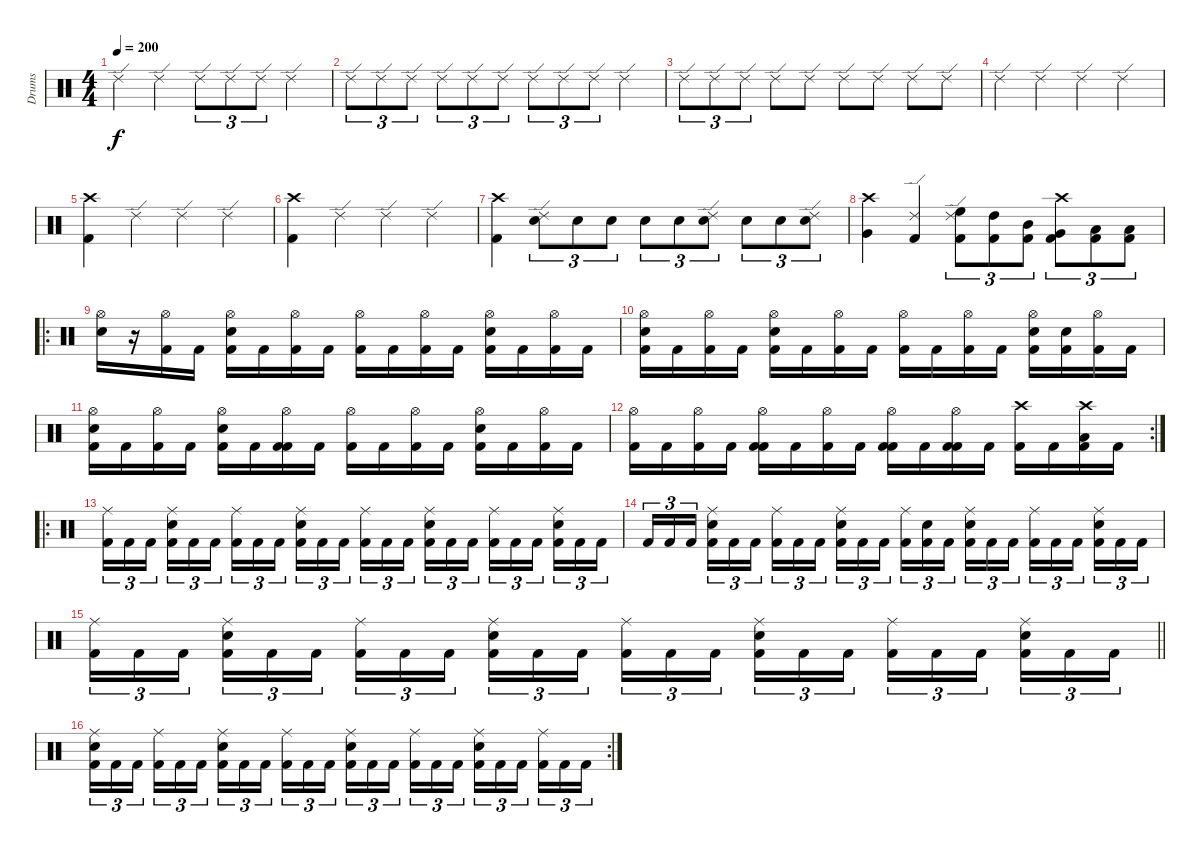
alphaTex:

\track ("Drums" "Drums") {instrument percussion}
\staff {score}
\articulation defaults
\ts (4 4)
\tempo 200
\clef neutral
\ks c "Ride (edge) 2".4{dy f} "Ride (edge) 2".4 "Ride (edge) 2".8{tu (3 2)} "Ride (edge) 2".8{tu (3 2)} "Ride (edge) 2".8{tu (3 2)} "Ride (edge) 2".4
|
"Ride (edge) 2".8{tu (3 2)} "Ride (edge) 2".8{tu (3 2)} "Ride (edge) 2".8{tu (3 2)} "Ride (edge) 2".8{tu (3 2)} "Ride (edge) 2".8{tu (3 2)} "Ride (edge) 2".8{tu (3 2)} "Ride (edge) 2".8{tu (3 2)} "Ride (edge) 2".8{tu (3 2)} "Ride (edge) 2".8{tu (3 2)} "Ride (edge) 2".4 |
"Ride (edge) 2".8{tu (3 2)} "Ride (edge) 2".8{tu (3 2)} "Ride (edge) 2".8{tu (3 2)} "Ride (edge) 2".8 "Ride (edge) 2".8 "Ride (edge) 2".8 "Ride (edge) 2".8 "Ride (edge) 2".8 "Ride (edge) 2".8 |
"Ride (edge) 2".4 "Ride (edge) 2".4 "Ride (edge) 2".4 "Ride (edge) 2".4 |
("Crash high (hit)" "Kick (hit) 2").4 "Ride (edge) 2".4 "Ride (edge) 2".4 "Ride (edge) 2".4 |
("Crash high (hit)" "Kick (hit) 2").4 "Ride (edge) 2".4 "Ride (edge) 2".4 "Ride (edge) 2".4 |
("Crash high (hit)" "Kick (hit) 2").4 ("Ride (edge) 2" "Snare (hit) 2").8{tu (3 2)} "Snare (hit) 2".8{tu (3 2)} "Snare (hit) 2".8{tu (3 2)} "Snare (hit) 2".8{tu (3 2)} "Snare (hit) 2".8{tu (3 2)} ("Ride (edge) 2" "Snare (hit) 2").8{tu (3 2)} "Snare (hit) 2".8{tu (3 2)} "Snare (hit) 2".8{tu (3 2)} ("Ride (edge) 2" "Snare (hit) 2").8{tu (3 2)} |
("Crash high (hit)" "Very Low Tom (hit)").4 ("Ride (edge) 2" "Kick (hit) 2").4 ("Ride (edge) 2" "High Floor Tom (hit)" "Kick (hit) 2").8{tu (3 2)} ("High Tom (hit)" "Kick (hit) 2").8{tu (3 2)} ("Mid Tom (hit)" "Kick (hit) 2").8{tu (3 2)} ("Crash high (hit)" "Very Low Tom (hit)" "Kick (hit) 2").8{tu (3 2)} ("Low Floor Tom (hit)" "Kick (hit) 2").8{tu (3 2)} ("Low Floor Tom (hit)" "Kick (hit) 2").8{tu (3 2)} |
\ro
("Hi-Hat (open)" "Snare (hit) 2").16 r.16 ("Hi-Hat (open)" "Kick (hit) 2").16 "Kick (hit) 2".16 ("Hi-Hat (open)" "Snare (hit) 2" "Kick (hit) 2").16 "Kick (hit) 2".16 ("Hi-Hat (open)" "Kick (hit) 2").16 "Kick (hit) 2".16 ("Hi-Hat (open)" "Kick (hit) 2").16 "Kick (hit) 2".16 ("Hi-Hat (open)" "Kick (hit) 2").16 "Kick (hit) 2".16 ("Hi-Hat (open)" "Snare (hit) 2" "Kick (hit) 2").16 "Kick (hit) 2".16 ("Hi-Hat (open)" "Kick (hit) 2").16 "Kick (hit) 2".16 |
("Hi-Hat (open)" "Snare (hit) 2" "Kick (hit) 2").16 "Kick (hit) 2".16 ("Hi-Hat (open)" "Kick (hit) 2").16 "Kick (hit) 2".16 ("Hi-Hat (open)" "Snare (hit) 2" "Kick (hit) 2").16 "Kick (hit) 2".16 ("Hi-Hat (open)" "Kick (hit) 2").16 "Kick (hit) 2".16 ("Hi-Hat (open)" "Kick (hit) 2").16 "Kick (hit) 2".16 ("Hi-Hat (open)" "Kick (hit) 2").16 "Kick (hit) 2".16 ("Hi-Hat (open)" "Snare (hit) 2" "Kick (hit) 2").16 ("Snare (hit) 2" "Kick (hit) 2").16 ("Hi-Hat (open)" "Kick (hit) 2").16 "Kick (hit) 2".16 |
("Hi-Hat (open)" "Snare (hit) 2" "Kick (hit) 2").16 "Kick (hit) 2".16 ("Hi-Hat (open)" "Kick (hit) 2").16 "Kick (hit) 2".16 ("Hi-Hat (open)" "Snare (hit) 2" "Kick (hit) 2").16 "Kick (hit) 2".16 ("Hi-Hat (open)" "Kick (hit) 2" "Kick (hit) 2").16 "Kick (hit) 2".16 ("Hi-Hat (open)" "Kick (hit) 2").16 "Kick (hit) 2".16 ("Hi-Hat (open)" "Kick (hit) 2").16 "Kick (hit) 2".16 ("Hi-Hat (open)" "Snare (hit) 2" "Kick (hit) 2").16 "Kick (hit) 2".16 ("Hi-Hat (open)" "Kick (hit) 2").16 "Kick (hit) 2".16 |
\rc 2
("Hi-Hat (open)" "Kick (hit) 2").16 "Kick (hit) 2".16 ("Hi-Hat (open)" "Kick (hit) 2").16 "Kick (hit) 2".16 ("Hi-Hat (open)" "Kick (hit) 2" "Kick (hit) 2").16 "Kick (hit) 2".16 ("Hi-Hat (open)" "Kick (hit) 2").16 "Kick (hit) 2".16 ("Hi-Hat (open)" "Kick (hit) 2" "Kick (hit) 2").16 "Kick (hit) 2".16 ("Hi-Hat (open)" "Kick (hit) 2" "Kick (hit) 2").16 "Kick (hit) 2".16 ("Crash high (hit)" "Kick (hit) 2").16 "Kick (hit) 2".16 ("Crash high (hit)" "Low Floor Tom (hit)" "Kick (hit) 2").16 "Kick (hit) 2".16 |
\ro
("Ride (middle)" "Kick (hit) 2").16{tu (3 2)} "Kick (hit) 2".16{tu (3 2)} "Kick (hit) 2".16{tu (3 2)} ("Ride (middle)" "Snare (hit) 2" "Kick (hit) 2").16{tu (3 2)} "Kick (hit) 2".16{tu (3 2)} "Kick (hit) 2".16{tu (3 2)} ("Ride (middle)" "Kick (hit) 2").16{tu (3 2)} "Kick (hit) 2".16{tu (3 2)} "Kick (hit) 2".16{tu (3 2)} ("Ride (middle)" "Snare (hit) 2" "Kick (hit) 2").16{tu (3 2)} "Kick (hit) 2".16{tu (3 2)} "Kick (hit) 2".16{tu (3 2)} ("Ride (middle)" "Kick (hit) 2").16{tu (3 2)} "Kick (hit) 2".16{tu (3 2)} "Kick (hit) 2".16{tu (3 2)} ("Ride (middle)" "Snare (hit) 2" "Kick (hit) 2").16{tu (3 2)} "Kick (hit) 2".16{tu (3 2)} "Kick (hit) 2".16{tu (3 2)} ("Ride (middle)" "Kick (hit) 2").16{tu (3 2)} "Kick (hit) 2".16{tu (3 2)} "Kick (hit) 2".16{tu (3 2)} ("Ride (middle)" "Snare (hit) 2" "Kick (hit) 2").16{tu (3 2)} "Kick (hit) 2".16{tu (3 2)} "Kick (hit) 2".16{tu (3 2)} |
"Kick (hit) 2".16{tu (3 2)} "Kick (hit) 2".16{tu (3 2)} "Kick (hit) 2".16{tu (3 2)} ("Ride (middle)" "Snare (hit) 2" "Kick (hit) 2").16{tu (3 2)} "Kick (hit) 2".16{tu (3 2)} "Kick (hit) 2".16{tu (3 2)} ("Ride (middle)" "Kick (hit) 2").16{tu (3 2)} "Kick (hit) 2".16{tu (3 2)} "Kick (hit) 2".16{tu (3 2)} ("Ride (middle)" "Snare (hit) 2" "Kick (hit) 2").16{tu (3 2)} "Kick (hit) 2".16{tu (3 2)} "Kick (hit) 2".16{tu (3 2)} ("Ride (middle)" "Kick (hit) 2").16{tu (3 2)} ("Snare (hit)" "Kick (hit) 2").16{tu (3 2)} "Kick (hit) 2".16{tu (3 2)} ("Ride (middle)" "Snare (hit) 2" "Kick (hit) 2").16{tu (3 2)} "Kick (hit) 2".16{tu (3 2)} "Kick (hit) 2".16{tu (3 2)} ("Ride (middle)" "Kick (hit) 2").16{tu (3 2)} "Kick (hit) 2".16{tu (3 2)} "Kick (hit) 2".16{tu (3 2)} ("Ride (middle)" "Snare (hit) 2" "Kick (hit) 2").16{tu (3 2)} "Kick (hit) 2".16{tu (3 2)} "Kick (hit) 2".16{tu (3 2)} |
\barLineRight lightlight
("Ride (middle)" "Kick (hit) 2").16{tu (3 2)} "Kick (hit) 2".16{tu (3 2)} "Kick (hit) 2".16{tu (3 2)} ("Ride (middle)" "Snare (hit) 2" "Kick (hit) 2").16{tu (3 2)} "Kick (hit) 2".16{tu (3 2)} "Kick (hit) 2".16{tu (3 2)} ("Ride (middle)" "Kick (hit) 2").16{tu (3 2)} "Kick (hit) 2".16{tu (3 2)} "Kick (hit) 2".16{tu (3 2)} ("Ride (middle)" "Snare (hit) 2" "Kick (hit) 2").16{tu (3 2)} "Kick (hit) 2".16{tu (3 2)} "Kick (hit) 2".16{tu (3 2)} ("Ride (middle)" "Kick (hit) 2").16{tu (3 2)} "Kick (hit) 2".16{tu (3 2)} "Kick (hit) 2".16{tu (3 2)} ("Ride (middle)" "Snare (hit) 2" "Kick (hit) 2").16{tu (3 2)} "Kick (hit) 2".16{tu (3 2)} "Kick (hit) 2".16{tu (3 2)} ("Ride (middle)" "Kick (hit) 2").16{tu (3 2)} "Kick (hit) 2".16{tu (3 2)} "Kick (hit) 2".16{tu (3 2)} ("Ride (middle)" "Snare (hit) 2" "Kick (hit) 2").16{tu (3 2)} "Kick (hit) 2".16{tu (3 2)} "Kick (hit) 2".16{tu (3 2)} |
\rc 2
("Ride (middle)" "Snare (hit) 2" "Kick (hit) 2").16{tu (3 2)} "Kick (hit) 2".16{tu (3 2)} "Kick (hit) 2".16{tu (3 2)} ("Ride (middle)" "Kick (hit) 2").16{tu (3 2)} "Kick (hit) 2".16{tu (3 2)} "Kick (hit) 2".16{tu (3 2)} ("Ride (middle)" "Snare (hit) 2" "Kick (hit) 2").16{tu (3 2)} "Kick (hit) 2".16{tu (3 2)} "Kick (hit) 2".16{tu (3 2)} ("Ride (middle)" "Kick (hit) 2").16{tu (3 2)} "Kick (hit) 2".16{tu (3 2)} "Kick (hit) 2".16{tu (3 2)} ("Ride (middle)" "Snare (hit) 2" "Kick (hit) 2").16{tu (3 2)} "Kick (hit) 2".16{tu (3 2)} "Kick (hit) 2".16{tu (3 2)} ("Ride (middle)" "Kick (hit) 2").16{tu (3 2)} "Kick (hit) 2".16{tu (3 2)} "Kick (hit) 2".16{tu (3 2)} ("Ride (middle)" "Snare (hit) 2" "Kick (hit) 2").16{tu (3 2)} "Kick (hit) 2".16{tu (3 2)} "Kick (hit) 2".16{tu (3 2)} ("Ride (middle)" "Kick (hit) 2").16{tu (3 2)} "Kick (hit) 2".16{tu (3 2)} "Kick (hit) 2".16{tu (3 2)}
